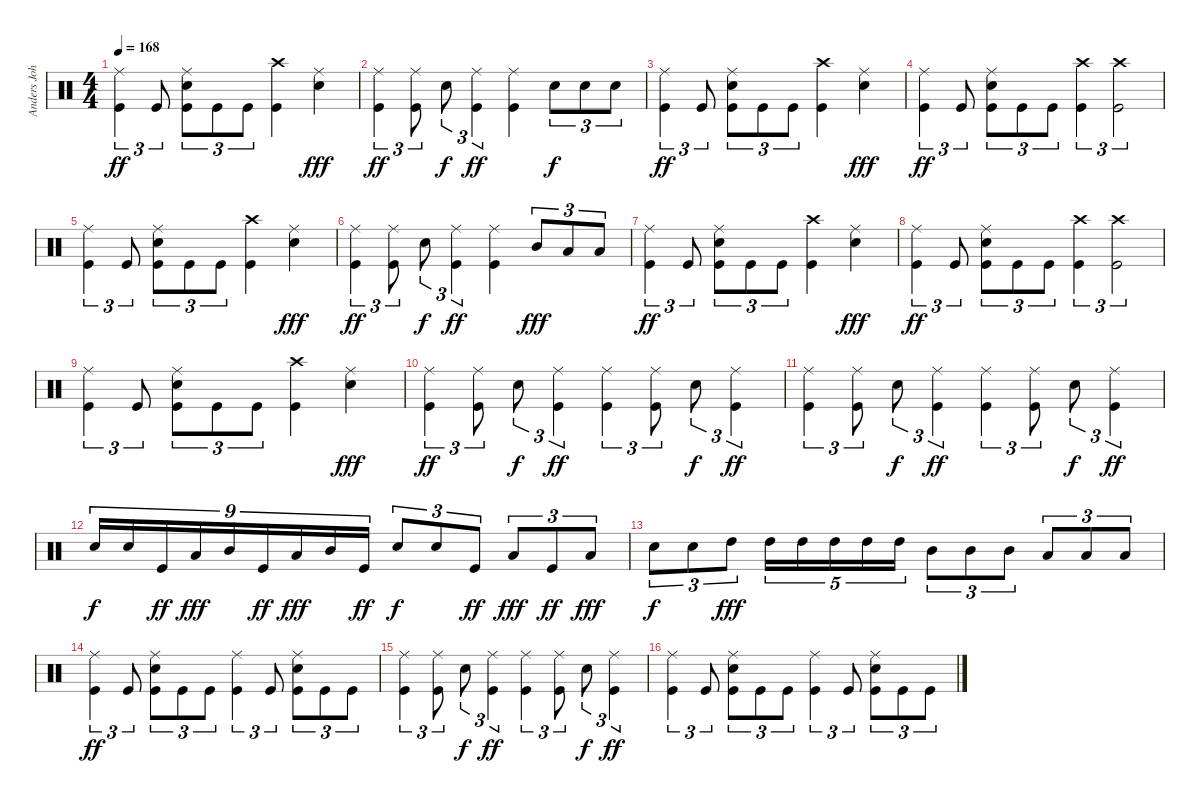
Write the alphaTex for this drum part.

\track ("Anders Johansson (Drums)" "Anders Joh") {instrument percussion}
\staff {score}
\articulation defaults
\ts (4 4)
\tempo 168
\clef neutral
\ks c
("Ride (middle)" "Kick (hit)").4{tu (3 2) dy ff} "Kick (hit)".8{tu (3 2)} ("Ride (middle)" "Electric Snare (hit)" "Kick (hit)").8{tu (3 2)} "Kick (hit)".8{tu (3 2)} "Kick (hit)".8{tu (3 2)} ("Crash high (hit)" "Kick (hit)").4 ("Ride (middle)" "Electric Snare (hit)").4{dy fff} |
("Ride (middle)" "Kick (hit)").4{tu (3 2) dy ff} ("Ride (middle)" "Kick (hit)").8{tu (3 2)} "Electric Snare (hit)".8{tu (3 2) dy f} ("Ride (middle)" "Kick (hit)").4{tu (3 2) dy ff} ("Ride (middle)" "Kick (hit)").4 "Electric Snare (hit)".8{tu (3 2) dy f} "Electric Snare (hit)".8{tu (3 2)} "Electric Snare (hit)".8{tu (3 2)} |
("Ride (middle)" "Kick (hit)").4{tu (3 2) dy ff} "Kick (hit)".8{tu (3 2)} ("Ride (middle)" "Electric Snare (hit)" "Kick (hit)").8{tu (3 2)} "Kick (hit)".8{tu (3 2)} "Kick (hit)".8{tu (3 2)} ("Crash high (hit)" "Kick (hit)").4 ("Ride (middle)" "Electric Snare (hit)").4{dy fff} |
("Ride (middle)" "Kick (hit)").4{tu (3 2) dy ff} "Kick (hit)".8{tu (3 2)} ("Ride (middle)" "Electric Snare (hit)" "Kick (hit)").8{tu (3 2)} "Kick (hit)".8{tu (3 2)} "Kick (hit)".8{tu (3 2)} ("Crash high (hit)" "Kick (hit)").4{tu (3 2)} ("Crash high (hit)" "Kick (hit)").2{tu (3 2)} |
("Ride (middle)" "Kick (hit)").4{tu (3 2)} "Kick (hit)".8{tu (3 2)} ("Ride (middle)" "Electric Snare (hit)" "Kick (hit)").8{tu (3 2)} "Kick (hit)".8{tu (3 2)} "Kick (hit)".8{tu (3 2)} ("Crash high (hit)" "Kick (hit)").4 ("Ride (middle)" "Electric Snare (hit)").4{dy fff} |
("Ride (middle)" "Kick (hit)").4{tu (3 2) dy ff} ("Ride (middle)" "Kick (hit)").8{tu (3 2)} "Electric Snare (hit)".8{tu (3 2) dy f} ("Ride (middle)" "Kick (hit)").4{tu (3 2) dy ff} ("Ride (middle)" "Kick (hit)").4 "Mid Tom (hit)".8{tu (3 2) dy fff} "Low Tom (hit)".8{tu (3 2)} "Low Tom (hit)".8{tu (3 2)} |
("Ride (middle)" "Kick (hit)").4{tu (3 2) dy ff} "Kick (hit)".8{tu (3 2)} ("Ride (middle)" "Electric Snare (hit)" "Kick (hit)").8{tu (3 2)} "Kick (hit)".8{tu (3 2)} "Kick (hit)".8{tu (3 2)} ("Crash high (hit)" "Kick (hit)").4 ("Ride (middle)" "Electric Snare (hit)").4{dy fff} |
("Ride (middle)" "Kick (hit)").4{tu (3 2) dy ff} "Kick (hit)".8{tu (3 2)} ("Ride (middle)" "Electric Snare (hit)" "Kick (hit)").8{tu (3 2)} "Kick (hit)".8{tu (3 2)} "Kick (hit)".8{tu (3 2)} ("Crash high (hit)" "Kick (hit)").4{tu (3 2)} ("Crash high (hit)" "Kick (hit)").2{tu (3 2)} |
("Ride (middle)" "Kick (hit)").4{tu (3 2)} "Kick (hit)".8{tu (3 2)} ("Ride (middle)" "Electric Snare (hit)" "Kick (hit)").8{tu (3 2)} "Kick (hit)".8{tu (3 2)} "Kick (hit)".8{tu (3 2)} ("Crash high (hit)" "Kick (hit)").4 ("Ride (middle)" "Electric Snare (hit)").4{dy fff} |
("Ride (middle)" "Kick (hit)").4{tu (3 2) dy ff} ("Ride (middle)" "Kick (hit)").8{tu (3 2)} "Electric Snare (hit)".8{tu (3 2) dy f} ("Ride (middle)" "Kick (hit)").4{tu (3 2) dy ff} ("Ride (middle)" "Kick (hit)").4{tu (3 2)} ("Ride (middle)" "Kick (hit)").8{tu (3 2)} "Electric Snare (hit)".8{tu (3 2) dy f} ("Ride (middle)" "Kick (hit)").4{tu (3 2) dy ff} |
("Ride (middle)" "Kick (hit)").4{tu (3 2)} ("Ride (middle)" "Kick (hit)").8{tu (3 2)} "Electric Snare (hit)".8{tu (3 2) dy f} ("Ride (middle)" "Kick (hit)").4{tu (3 2) dy ff} ("Ride (middle)" "Kick (hit)").4{tu (3 2)} ("Ride (middle)" "Kick (hit)").8{tu (3 2)} "Electric Snare (hit)".8{tu (3 2) dy f} ("Ride (middle)" "Kick (hit)").4{tu (3 2) dy ff} |
"Electric Snare (hit)".16{tu (9 8) dy f} "Electric Snare (hit)".16{tu (9 8)} "Kick (hit)".16{tu (9 8) dy ff} "Low Tom (hit)".16{tu (9 8) dy fff} "Mid Tom (hit)".16{tu (9 8)} "Kick (hit)".16{tu (9 8) dy ff} "Low Tom (hit)".16{tu (9 8) dy fff} "Mid Tom (hit)".16{tu (9 8)} "Kick (hit)".16{tu (9 8) dy ff} "Electric Snare (hit)".8{tu (3 2) dy f} "Electric Snare (hit)".8{tu (3 2)} "Kick (hit)".8{tu (3 2) dy ff} "Low Tom (hit)".8{tu (3 2) dy fff} "Kick (hit)".8{tu (3 2) dy ff} "Low Tom (hit)".8{tu (3 2) dy fff} |
"Electric Snare (hit)".8{tu (3 2) dy f} "Electric Snare (hit)".8{tu (3 2)} "High Tom (hit)".8{tu (3 2) dy fff} "High Tom (hit)".16{tu (5 4)} "High Tom (hit)".16{tu (5 4)} "High Tom (hit)".16{tu (5 4)} "High Tom (hit)".16{tu (5 4)} "High Tom (hit)".16{tu (5 4)} "Mid Tom (hit)".8{tu (3 2)} "Mid Tom (hit)".8{tu (3 2)} "Mid Tom (hit)".8{tu (3 2)} "Low Tom (hit)".8{tu (3 2)} "Low Tom (hit)".8{tu (3 2)} "Low Tom (hit)".8{tu (3 2)} |
("Ride (middle)" "Kick (hit)").4{tu (3 2) dy ff} "Kick (hit)".8{tu (3 2)} ("Ride (middle)" "Electric Snare (hit)" "Kick (hit)").8{tu (3 2)} "Kick (hit)".8{tu (3 2)} "Kick (hit)".8{tu (3 2)} ("Ride (middle)" "Kick (hit)").4{tu (3 2)} "Kick (hit)".8{tu (3 2)} ("Ride (middle)" "Electric Snare (hit)" "Kick (hit)").8{tu (3 2)} "Kick (hit)".8{tu (3 2)} "Kick (hit)".8{tu (3 2)} |
("Ride (middle)" "Kick (hit)").4{tu (3 2)} ("Ride (middle)" "Kick (hit)").8{tu (3 2)} "Electric Snare (hit)".8{tu (3 2) dy f} ("Ride (middle)" "Kick (hit)").4{tu (3 2) dy ff} ("Ride (middle)" "Kick (hit)").4{tu (3 2)} ("Ride (middle)" "Kick (hit)").8{tu (3 2)} "Electric Snare (hit)".8{tu (3 2) dy f} ("Ride (middle)" "Kick (hit)").4{tu (3 2) dy ff} |
("Ride (middle)" "Kick (hit)").4{tu (3 2)} "Kick (hit)".8{tu (3 2)} ("Ride (middle)" "Electric Snare (hit)" "Kick (hit)").8{tu (3 2)} "Kick (hit)".8{tu (3 2)} "Kick (hit)".8{tu (3 2)} ("Ride (middle)" "Kick (hit)").4{tu (3 2)} "Kick (hit)".8{tu (3 2)} ("Ride (middle)" "Electric Snare (hit)" "Kick (hit)").8{tu (3 2)} "Kick (hit)".8{tu (3 2)} "Kick (hit)".8{tu (3 2)}
